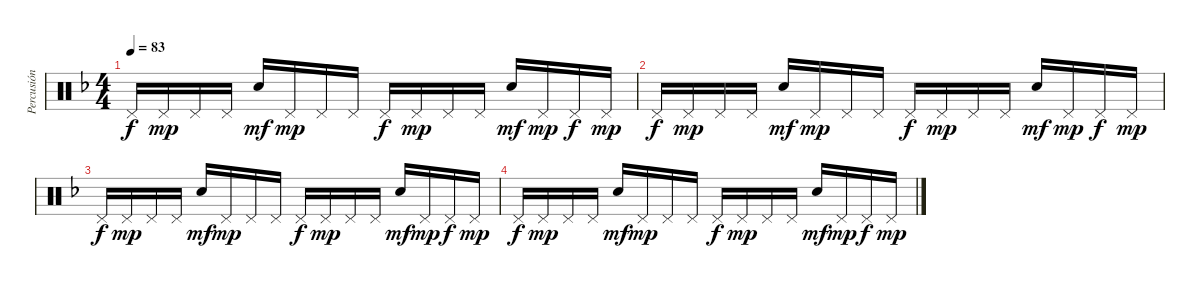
\track ("Percusión" "Percusión") {instrument percussion}
\staff {score}
\articulation defaults
\ts (4 4)
\tempo 83
\clef neutral
\ks dminor "Pedal Hi-Hat (hit)".16{dy f} "Pedal Hi-Hat (hit)".16{dy mp} "Pedal Hi-Hat (hit)".16 "Pedal Hi-Hat (hit)".16 "Electric Snare (hit)".16{dy mf} "Pedal Hi-Hat (hit)".16{dy mp} "Pedal Hi-Hat (hit)".16 "Pedal Hi-Hat (hit)".16 "Pedal Hi-Hat (hit)".16{dy f} "Pedal Hi-Hat (hit)".16{dy mp} "Pedal Hi-Hat (hit)".16 "Pedal Hi-Hat (hit)".16 "Electric Snare (hit)".16{dy mf} "Pedal Hi-Hat (hit)".16{dy mp} "Pedal Hi-Hat (hit)".16{dy f} "Pedal Hi-Hat (hit)".16{dy mp}
|
"Pedal Hi-Hat (hit)".16{dy f} "Pedal Hi-Hat (hit)".16{dy mp} "Pedal Hi-Hat (hit)".16 "Pedal Hi-Hat (hit)".16 "Electric Snare (hit)".16{dy mf} "Pedal Hi-Hat (hit)".16{dy mp} "Pedal Hi-Hat (hit)".16 "Pedal Hi-Hat (hit)".16 "Pedal Hi-Hat (hit)".16{dy f} "Pedal Hi-Hat (hit)".16{dy mp} "Pedal Hi-Hat (hit)".16 "Pedal Hi-Hat (hit)".16 "Electric Snare (hit)".16{dy mf} "Pedal Hi-Hat (hit)".16{dy mp} "Pedal Hi-Hat (hit)".16{dy f} "Pedal Hi-Hat (hit)".16{dy mp} |
"Pedal Hi-Hat (hit)".16{dy f} "Pedal Hi-Hat (hit)".16{dy mp} "Pedal Hi-Hat (hit)".16 "Pedal Hi-Hat (hit)".16 "Electric Snare (hit)".16{dy mf} "Pedal Hi-Hat (hit)".16{dy mp} "Pedal Hi-Hat (hit)".16 "Pedal Hi-Hat (hit)".16 "Pedal Hi-Hat (hit)".16{dy f} "Pedal Hi-Hat (hit)".16{dy mp} "Pedal Hi-Hat (hit)".16 "Pedal Hi-Hat (hit)".16 "Electric Snare (hit)".16{dy mf} "Pedal Hi-Hat (hit)".16{dy mp} "Pedal Hi-Hat (hit)".16{dy f} "Pedal Hi-Hat (hit)".16{dy mp} |
"Pedal Hi-Hat (hit)".16{dy f} "Pedal Hi-Hat (hit)".16{dy mp} "Pedal Hi-Hat (hit)".16 "Pedal Hi-Hat (hit)".16 "Electric Snare (hit)".16{dy mf} "Pedal Hi-Hat (hit)".16{dy mp} "Pedal Hi-Hat (hit)".16 "Pedal Hi-Hat (hit)".16 "Pedal Hi-Hat (hit)".16{dy f} "Pedal Hi-Hat (hit)".16{dy mp} "Pedal Hi-Hat (hit)".16 "Pedal Hi-Hat (hit)".16 "Electric Snare (hit)".16{dy mf} "Pedal Hi-Hat (hit)".16{dy mp} "Pedal Hi-Hat (hit)".16{dy f} "Pedal Hi-Hat (hit)".16{dy mp}
